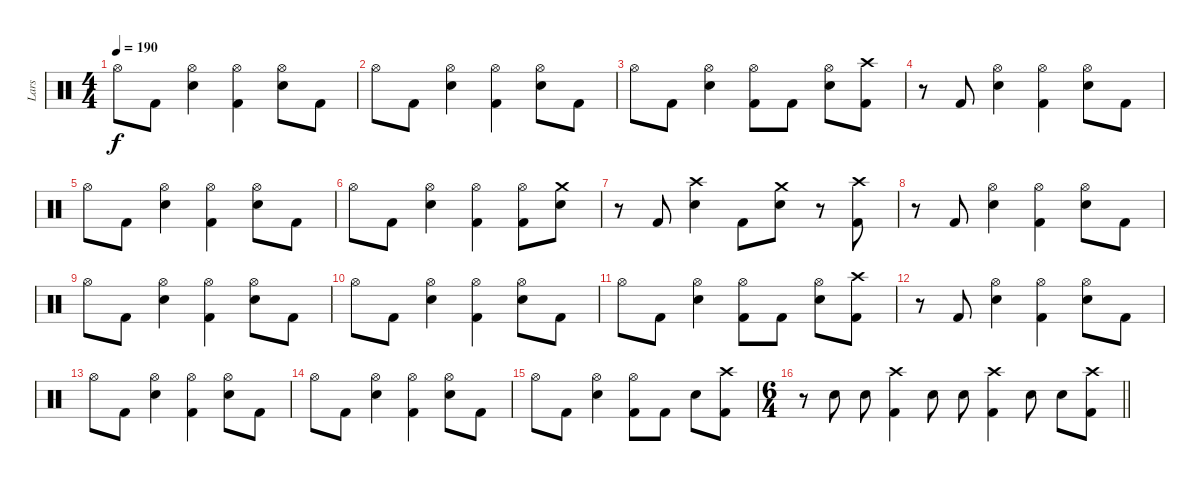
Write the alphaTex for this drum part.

\track ("Lars" "Lars") {instrument percussion}
\staff {score}
\articulation defaults
\ts (4 4)
\tempo 190
\clef neutral
\ks c "Hi-Hat (open)".8{dy f} "Kick (hit) 2".8
("Hi-Hat (open)" "Snare (hit) 2").4 ("Hi-Hat (open)" "Kick (hit) 2").4 ("Hi-Hat (open)" "Snare (hit) 2").8 "Kick (hit) 2".8 |
"Hi-Hat (open)".8 "Kick (hit) 2".8 ("Hi-Hat (open)" "Snare (hit) 2").4 ("Hi-Hat (open)" "Kick (hit) 2").4 ("Hi-Hat (open)" "Snare (hit) 2").8 "Kick (hit) 2".8 |
"Hi-Hat (open)".8 "Kick (hit) 2".8 ("Hi-Hat (open)" "Snare (hit) 2").4 ("Hi-Hat (open)" "Kick (hit) 2").8 "Kick (hit) 2".8 ("Hi-Hat (open)" "Snare (hit) 2").8 ("Crash high (hit)" "Kick (hit) 2").8 |
r.8 "Kick (hit) 2".8 ("Hi-Hat (open)" "Snare (hit) 2").4 ("Hi-Hat (open)" "Kick (hit) 2").4 ("Hi-Hat (open)" "Snare (hit) 2").8 "Kick (hit) 2".8 |
"Hi-Hat (open)".8 "Kick (hit) 2".8 ("Hi-Hat (open)" "Snare (hit) 2").4 ("Hi-Hat (open)" "Kick (hit) 2").4 ("Hi-Hat (open)" "Snare (hit) 2").8 "Kick (hit) 2".8 |
"Hi-Hat (open)".8 "Kick (hit) 2".8 ("Hi-Hat (open)" "Snare (hit) 2").4 ("Hi-Hat (open)" "Kick (hit) 2").4 ("Hi-Hat (open)" "Kick (hit) 2").8 ("Crash medium (hit)" "Snare (hit) 2").8 |
r.8 "Kick (hit) 2".8 ("Crash high (hit)" "Snare (hit) 2").4 "Kick (hit) 2".8 ("Crash medium (hit)" "Snare (hit) 2").8 r.8 ("Crash high (hit)" "Kick (hit) 2").8 |
r.8 "Kick (hit) 2".8 ("Hi-Hat (open)" "Snare (hit) 2").4 ("Hi-Hat (open)" "Kick (hit) 2").4 ("Hi-Hat (open)" "Snare (hit) 2").8 "Kick (hit) 2".8 |
"Hi-Hat (open)".8 "Kick (hit) 2".8 ("Hi-Hat (open)" "Snare (hit) 2").4 ("Hi-Hat (open)" "Kick (hit) 2").4 ("Hi-Hat (open)" "Snare (hit) 2").8 "Kick (hit) 2".8 |
"Hi-Hat (open)".8 "Kick (hit) 2".8 ("Hi-Hat (open)" "Snare (hit) 2").4 ("Hi-Hat (open)" "Kick (hit) 2").4 ("Hi-Hat (open)" "Snare (hit) 2").8 "Kick (hit) 2".8 |
"Hi-Hat (open)".8 "Kick (hit) 2".8 ("Hi-Hat (open)" "Snare (hit) 2").4 ("Hi-Hat (open)" "Kick (hit) 2").8 "Kick (hit) 2".8 ("Hi-Hat (open)" "Snare (hit) 2").8 ("Crash high (hit)" "Kick (hit) 2").8 |
r.8 "Kick (hit) 2".8 ("Hi-Hat (open)" "Snare (hit) 2").4 ("Hi-Hat (open)" "Kick (hit) 2").4 ("Hi-Hat (open)" "Snare (hit) 2").8 "Kick (hit) 2".8 |
"Hi-Hat (open)".8 "Kick (hit) 2".8 ("Hi-Hat (open)" "Snare (hit) 2").4 ("Hi-Hat (open)" "Kick (hit) 2").4 ("Hi-Hat (open)" "Snare (hit) 2").8 "Kick (hit) 2".8 |
"Hi-Hat (open)".8 "Kick (hit) 2".8 ("Hi-Hat (open)" "Snare (hit) 2").4 ("Hi-Hat (open)" "Kick (hit) 2").4 ("Hi-Hat (open)" "Snare (hit) 2").8 "Kick (hit) 2".8 |
"Hi-Hat (open)".8 "Kick (hit) 2".8 ("Hi-Hat (open)" "Snare (hit) 2").4 ("Hi-Hat (open)" "Kick (hit) 2").8 "Kick (hit) 2".8 "Snare (hit) 2".8 ("Crash high (hit)" "Kick (hit) 2").8 |
\ts (6 4)
\barLineRight lightlight
r.8 "Snare (hit) 2".8 "Snare (hit) 2".8 ("Crash high (hit)" "Kick (hit) 2").4 "Snare (hit) 2".8 "Snare (hit) 2".8 ("Crash high (hit)" "Kick (hit) 2").4 "Snare (hit) 2".8 "Snare (hit) 2".8 ("Crash high (hit)" "Kick (hit) 2").8
